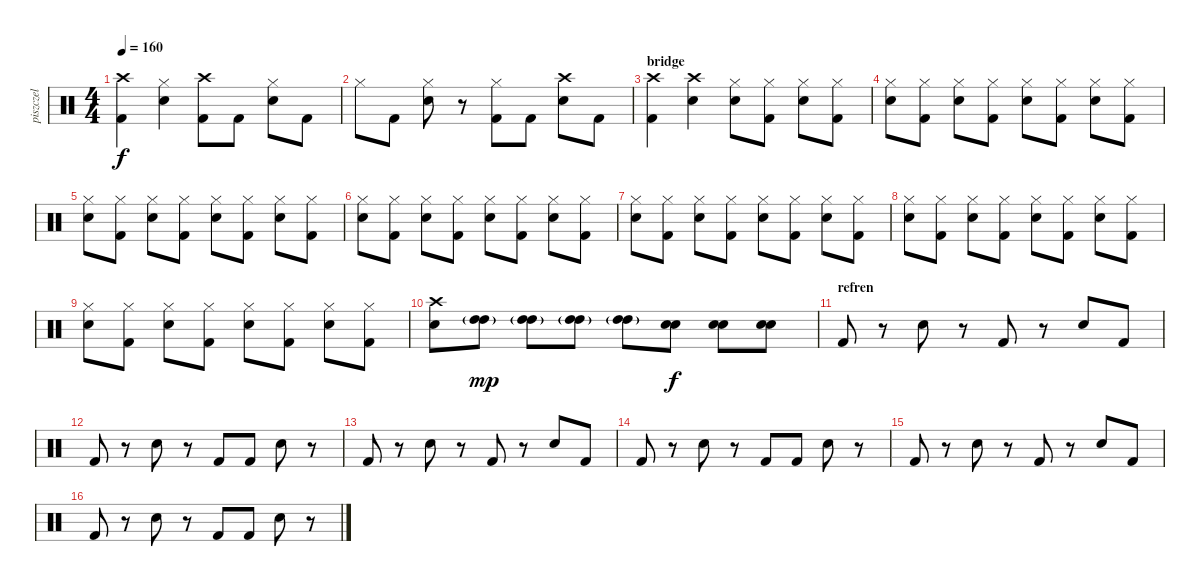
\track ("piszczel" "piszczel") {instrument percussion}
\staff {score}
\articulation defaults
\ts (4 4)
\tempo 160
\clef neutral
\ks c
("Crash high (hit)" "Kick (hit) 2").4{dy f} ("Hi-Hat (closed)" "Snare (hit) 2").4 ("Crash high (hit)" "Kick (hit) 2").8 "Kick (hit) 2".8 ("Hi-Hat (closed)" "Snare (hit) 2").8 "Kick (hit) 2".8 |
"Hi-Hat (closed)".8 "Kick (hit) 2".8 ("Hi-Hat (closed)" "Snare (hit) 2").8 r.8 ("Hi-Hat (closed)" "Kick (hit) 2").8 "Kick (hit) 2".8 ("Crash high (hit)" "Snare (hit) 2").8 "Kick (hit) 2".8 |
\section ("" "bridge")
("Crash high (hit)" "Kick (hit) 2").4 ("Crash high (hit)" "Snare (hit) 2").4 ("Hi-Hat (closed)" "Snare (hit) 2").8 ("Hi-Hat (closed)" "Kick (hit) 2").8 ("Hi-Hat (closed)" "Snare (hit) 2").8 ("Hi-Hat (closed)" "Kick (hit) 2").8 |
("Hi-Hat (closed)" "Snare (hit) 2").8 ("Hi-Hat (closed)" "Kick (hit) 2").8 ("Hi-Hat (closed)" "Snare (hit) 2").8 ("Hi-Hat (closed)" "Kick (hit) 2").8 ("Hi-Hat (closed)" "Snare (hit) 2").8 ("Hi-Hat (closed)" "Kick (hit) 2").8 ("Hi-Hat (closed)" "Snare (hit) 2").8 ("Hi-Hat (closed)" "Kick (hit) 2").8 |
("Hi-Hat (closed)" "Snare (hit) 2").8 ("Hi-Hat (closed)" "Kick (hit) 2").8 ("Hi-Hat (closed)" "Snare (hit) 2").8 ("Hi-Hat (closed)" "Kick (hit) 2").8 ("Hi-Hat (closed)" "Snare (hit) 2").8 ("Hi-Hat (closed)" "Kick (hit) 2").8 ("Hi-Hat (closed)" "Snare (hit) 2").8 ("Hi-Hat (closed)" "Kick (hit) 2").8 |
("Hi-Hat (closed)" "Snare (hit) 2").8 ("Hi-Hat (closed)" "Kick (hit) 2").8 ("Hi-Hat (closed)" "Snare (hit) 2").8 ("Hi-Hat (closed)" "Kick (hit) 2").8 ("Hi-Hat (closed)" "Snare (hit) 2").8 ("Hi-Hat (closed)" "Kick (hit) 2").8 ("Hi-Hat (closed)" "Snare (hit) 2").8 ("Hi-Hat (closed)" "Kick (hit) 2").8 |
("Hi-Hat (closed)" "Snare (hit) 2").8 ("Hi-Hat (closed)" "Kick (hit) 2").8 ("Hi-Hat (closed)" "Snare (hit) 2").8 ("Hi-Hat (closed)" "Kick (hit) 2").8 ("Hi-Hat (closed)" "Snare (hit) 2").8 ("Hi-Hat (closed)" "Kick (hit) 2").8 ("Hi-Hat (closed)" "Snare (hit) 2").8 ("Hi-Hat (closed)" "Kick (hit) 2").8 |
("Hi-Hat (closed)" "Snare (hit) 2").8 ("Hi-Hat (closed)" "Kick (hit) 2").8 ("Hi-Hat (closed)" "Snare (hit) 2").8 ("Hi-Hat (closed)" "Kick (hit) 2").8 ("Hi-Hat (closed)" "Snare (hit) 2").8 ("Hi-Hat (closed)" "Kick (hit) 2").8 ("Hi-Hat (closed)" "Snare (hit) 2").8 ("Hi-Hat (closed)" "Kick (hit) 2").8 |
("Hi-Hat (closed)" "Snare (hit) 2").8 ("Hi-Hat (closed)" "Kick (hit) 2").8 ("Hi-Hat (closed)" "Snare (hit) 2").8 ("Hi-Hat (closed)" "Kick (hit) 2").8 ("Hi-Hat (closed)" "Snare (hit) 2").8 ("Hi-Hat (closed)" "Kick (hit) 2").8 ("Hi-Hat (closed)" "Snare (hit) 2").8 ("Hi-Hat (closed)" "Kick (hit) 2").8 |
("Crash high (hit)" "Snare (hit) 2").8 ("High Tom (hit)"{g} "High Tom (hit)"{g}).8{dy mp} ("High Tom (hit)"{g} "High Tom (hit)"{g}).8 ("High Tom (hit)"{g} "High Tom (hit)"{g}).8 ("High Tom (hit)"{g} "High Tom (hit)"{g}).8 ("Snare (hit) 2" "Snare (hit) 2").8{dy f} ("Snare (hit) 2" "Snare (hit) 2").8 ("Snare (hit) 2" "Snare (hit) 2").8 |
\section ("" "refren")
"Kick (hit) 2".8 r.8 "Snare (hit) 2".8 r.8 "Kick (hit) 2".8 r.8 "Snare (hit) 2".8 "Kick (hit) 2".8 |
"Kick (hit) 2".8 r.8 "Snare (hit) 2".8 r.8 "Kick (hit) 2".8 "Kick (hit) 2".8 "Snare (hit) 2".8 r.8 |
"Kick (hit) 2".8 r.8 "Snare (hit) 2".8 r.8 "Kick (hit) 2".8 r.8 "Snare (hit) 2".8 "Kick (hit) 2".8 |
"Kick (hit) 2".8 r.8 "Snare (hit) 2".8 r.8 "Kick (hit) 2".8 "Kick (hit) 2".8 "Snare (hit) 2".8 r.8 |
"Kick (hit) 2".8 r.8 "Snare (hit) 2".8 r.8 "Kick (hit) 2".8 r.8 "Snare (hit) 2".8 "Kick (hit) 2".8 |
"Kick (hit) 2".8 r.8 "Snare (hit) 2".8 r.8 "Kick (hit) 2".8 "Kick (hit) 2".8 "Snare (hit) 2".8 r.8
